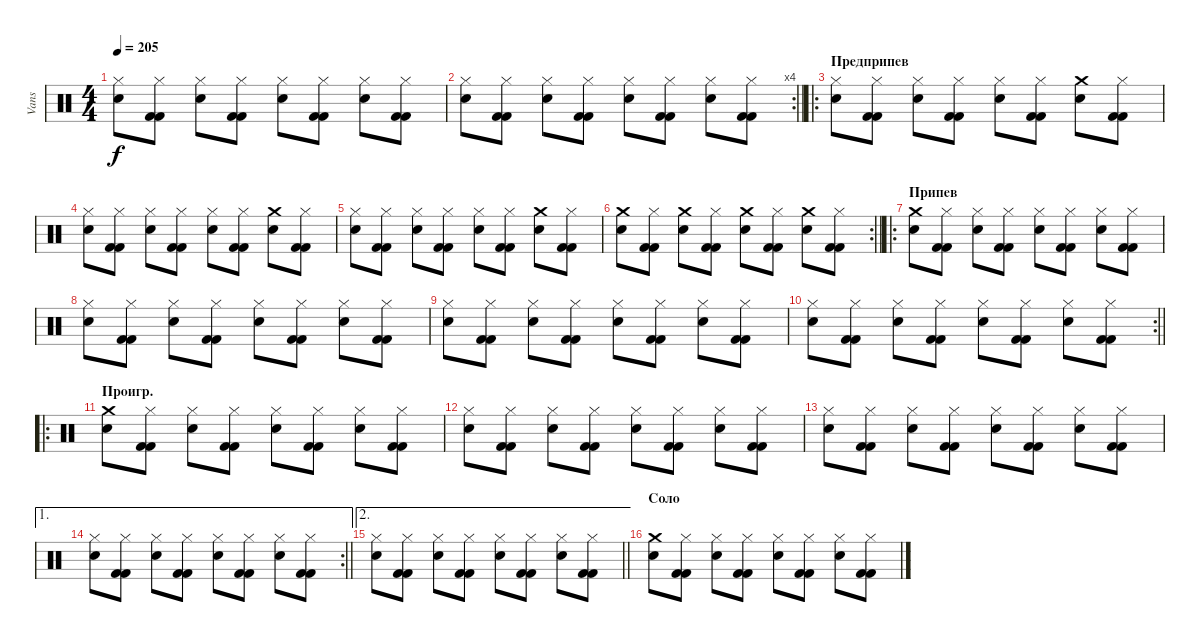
\track ("Vans" "Vans") {instrument percussion}
\staff {score}
\articulation defaults
\ts (4 4)
\tempo 205
\clef neutral
\ks c
("Hi-Hat (closed)" "Snare (hit) 2").8{dy f} ("Hi-Hat (closed)" "Kick (hit) 2" "Kick (hit) 2").8 ("Hi-Hat (closed)" "Snare (hit) 2").8 ("Hi-Hat (closed)" "Kick (hit) 2" "Kick (hit) 2").8 ("Hi-Hat (closed)" "Snare (hit) 2").8 ("Hi-Hat (closed)" "Kick (hit) 2" "Kick (hit) 2").8 ("Hi-Hat (closed)" "Snare (hit) 2").8 ("Hi-Hat (closed)" "Kick (hit) 2" "Kick (hit) 2").8 |
\rc 4
\barLineRight lightlight
("Hi-Hat (closed)" "Snare (hit) 2").8 ("Hi-Hat (closed)" "Kick (hit) 2" "Kick (hit) 2").8 ("Hi-Hat (closed)" "Snare (hit) 2").8 ("Hi-Hat (closed)" "Kick (hit) 2" "Kick (hit) 2").8 ("Hi-Hat (closed)" "Snare (hit) 2").8 ("Hi-Hat (closed)" "Kick (hit) 2" "Kick (hit) 2").8 ("Hi-Hat (closed)" "Snare (hit) 2").8 ("Hi-Hat (closed)" "Kick (hit) 2" "Kick (hit) 2").8 |
\ro
\section ("" "Предприпев")
("Hi-Hat (closed)" "Snare (hit) 2").8 ("Hi-Hat (closed)" "Kick (hit) 2" "Kick (hit) 2").8 ("Hi-Hat (closed)" "Snare (hit) 2").8 ("Hi-Hat (closed)" "Kick (hit) 2" "Kick (hit) 2").8 ("Hi-Hat (closed)" "Snare (hit) 2").8 ("Hi-Hat (closed)" "Kick (hit) 2" "Kick (hit) 2").8 ("Crash medium (hit)" "Snare (hit) 2").8 ("Hi-Hat (closed)" "Kick (hit) 2" "Kick (hit) 2").8 |
("Hi-Hat (closed)" "Snare (hit) 2").8 ("Hi-Hat (closed)" "Kick (hit) 2" "Kick (hit) 2").8 ("Hi-Hat (closed)" "Snare (hit) 2").8 ("Hi-Hat (closed)" "Kick (hit) 2" "Kick (hit) 2").8 ("Hi-Hat (closed)" "Snare (hit) 2").8 ("Hi-Hat (closed)" "Kick (hit) 2" "Kick (hit) 2").8 ("Crash medium (hit)" "Snare (hit) 2").8 ("Hi-Hat (closed)" "Kick (hit) 2" "Kick (hit) 2").8 |
("Hi-Hat (closed)" "Snare (hit) 2").8 ("Hi-Hat (closed)" "Kick (hit) 2" "Kick (hit) 2").8 ("Hi-Hat (closed)" "Snare (hit) 2").8 ("Hi-Hat (closed)" "Kick (hit) 2" "Kick (hit) 2").8 ("Hi-Hat (closed)" "Snare (hit) 2").8 ("Hi-Hat (closed)" "Kick (hit) 2" "Kick (hit) 2").8 ("Crash medium (hit)" "Snare (hit) 2").8 ("Hi-Hat (closed)" "Kick (hit) 2" "Kick (hit) 2").8 |
\rc 2
\barLineRight lightlight
("Crash medium (hit)" "Snare (hit) 2").8 ("Hi-Hat (closed)" "Kick (hit) 2" "Kick (hit) 2").8 ("Crash medium (hit)" "Snare (hit) 2").8 ("Hi-Hat (closed)" "Kick (hit) 2" "Kick (hit) 2").8 ("Crash medium (hit)" "Snare (hit) 2").8 ("Hi-Hat (closed)" "Kick (hit) 2" "Kick (hit) 2").8 ("Crash medium (hit)" "Snare (hit) 2").8 ("Hi-Hat (closed)" "Kick (hit) 2" "Kick (hit) 2").8 |
\ro
\section ("" "Припев")
("Crash medium (hit)" "Snare (hit) 2").8 ("Hi-Hat (closed)" "Kick (hit) 2" "Kick (hit) 2").8 ("Hi-Hat (closed)" "Snare (hit) 2").8 ("Hi-Hat (closed)" "Kick (hit) 2" "Kick (hit) 2").8 ("Hi-Hat (closed)" "Snare (hit) 2").8 ("Hi-Hat (closed)" "Kick (hit) 2" "Kick (hit) 2").8 ("Hi-Hat (closed)" "Snare (hit) 2").8 ("Hi-Hat (closed)" "Kick (hit) 2" "Kick (hit) 2").8 |
("Hi-Hat (closed)" "Snare (hit) 2").8 ("Hi-Hat (closed)" "Kick (hit) 2" "Kick (hit) 2").8 ("Hi-Hat (closed)" "Snare (hit) 2").8 ("Hi-Hat (closed)" "Kick (hit) 2" "Kick (hit) 2").8 ("Hi-Hat (closed)" "Snare (hit) 2").8 ("Hi-Hat (closed)" "Kick (hit) 2" "Kick (hit) 2").8 ("Hi-Hat (closed)" "Snare (hit) 2").8 ("Hi-Hat (closed)" "Kick (hit) 2" "Kick (hit) 2").8 |
("Hi-Hat (closed)" "Snare (hit) 2").8 ("Hi-Hat (closed)" "Kick (hit) 2" "Kick (hit) 2").8 ("Hi-Hat (closed)" "Snare (hit) 2").8 ("Hi-Hat (closed)" "Kick (hit) 2" "Kick (hit) 2").8 ("Hi-Hat (closed)" "Snare (hit) 2").8 ("Hi-Hat (closed)" "Kick (hit) 2" "Kick (hit) 2").8 ("Hi-Hat (closed)" "Snare (hit) 2").8 ("Hi-Hat (closed)" "Kick (hit) 2" "Kick (hit) 2").8 |
\rc 2
\barLineRight lightlight
("Hi-Hat (closed)" "Snare (hit) 2").8 ("Hi-Hat (closed)" "Kick (hit) 2" "Kick (hit) 2").8 ("Hi-Hat (closed)" "Snare (hit) 2").8 ("Hi-Hat (closed)" "Kick (hit) 2" "Kick (hit) 2").8 ("Hi-Hat (closed)" "Snare (hit) 2").8 ("Hi-Hat (closed)" "Kick (hit) 2" "Kick (hit) 2").8 ("Hi-Hat (closed)" "Snare (hit) 2").8 ("Hi-Hat (closed)" "Kick (hit) 2" "Kick (hit) 2").8 |
\ro
\section ("" "Проигр.")
("Crash medium (hit)" "Snare (hit) 2").8 ("Hi-Hat (closed)" "Kick (hit) 2" "Kick (hit) 2").8 ("Hi-Hat (closed)" "Snare (hit) 2").8 ("Hi-Hat (closed)" "Kick (hit) 2" "Kick (hit) 2").8 ("Hi-Hat (closed)" "Snare (hit) 2").8 ("Hi-Hat (closed)" "Kick (hit) 2" "Kick (hit) 2").8 ("Hi-Hat (closed)" "Snare (hit) 2").8 ("Hi-Hat (closed)" "Kick (hit) 2" "Kick (hit) 2").8 |
("Hi-Hat (closed)" "Snare (hit) 2").8 ("Hi-Hat (closed)" "Kick (hit) 2" "Kick (hit) 2").8 ("Hi-Hat (closed)" "Snare (hit) 2").8 ("Hi-Hat (closed)" "Kick (hit) 2" "Kick (hit) 2").8 ("Hi-Hat (closed)" "Snare (hit) 2").8 ("Hi-Hat (closed)" "Kick (hit) 2" "Kick (hit) 2").8 ("Hi-Hat (closed)" "Snare (hit) 2").8 ("Hi-Hat (closed)" "Kick (hit) 2" "Kick (hit) 2").8 |
("Hi-Hat (closed)" "Snare (hit) 2").8 ("Hi-Hat (closed)" "Kick (hit) 2" "Kick (hit) 2").8 ("Hi-Hat (closed)" "Snare (hit) 2").8 ("Hi-Hat (closed)" "Kick (hit) 2" "Kick (hit) 2").8 ("Hi-Hat (closed)" "Snare (hit) 2").8 ("Hi-Hat (closed)" "Kick (hit) 2" "Kick (hit) 2").8 ("Hi-Hat (closed)" "Snare (hit) 2").8 ("Hi-Hat (closed)" "Kick (hit) 2" "Kick (hit) 2").8 |
\ae 1
\rc 2
\barLineRight lightlight
("Hi-Hat (closed)" "Snare (hit) 2").8 ("Hi-Hat (closed)" "Kick (hit) 2" "Kick (hit) 2").8 ("Hi-Hat (closed)" "Snare (hit) 2").8 ("Hi-Hat (closed)" "Kick (hit) 2" "Kick (hit) 2").8 ("Hi-Hat (closed)" "Snare (hit) 2").8 ("Hi-Hat (closed)" "Kick (hit) 2" "Kick (hit) 2").8 ("Hi-Hat (closed)" "Snare (hit) 2").8 ("Hi-Hat (closed)" "Kick (hit) 2" "Kick (hit) 2").8 |
\ae 2
\barLineRight lightlight
("Hi-Hat (closed)" "Snare (hit) 2").8 ("Hi-Hat (closed)" "Kick (hit) 2" "Kick (hit) 2").8 ("Hi-Hat (closed)" "Snare (hit) 2").8 ("Hi-Hat (closed)" "Kick (hit) 2" "Kick (hit) 2").8 ("Hi-Hat (closed)" "Snare (hit) 2").8 ("Hi-Hat (closed)" "Kick (hit) 2" "Kick (hit) 2").8 ("Hi-Hat (closed)" "Snare (hit) 2").8 ("Hi-Hat (closed)" "Kick (hit) 2" "Kick (hit) 2").8 |
\section ("" "Соло")
("Crash medium (hit)" "Snare (hit) 2").8 ("Hi-Hat (closed)" "Kick (hit) 2" "Kick (hit) 2").8 ("Hi-Hat (closed)" "Snare (hit) 2").8 ("Hi-Hat (closed)" "Kick (hit) 2" "Kick (hit) 2").8 ("Hi-Hat (closed)" "Snare (hit) 2").8 ("Hi-Hat (closed)" "Kick (hit) 2" "Kick (hit) 2").8 ("Hi-Hat (closed)" "Snare (hit) 2").8 ("Hi-Hat (closed)" "Kick (hit) 2" "Kick (hit) 2").8
